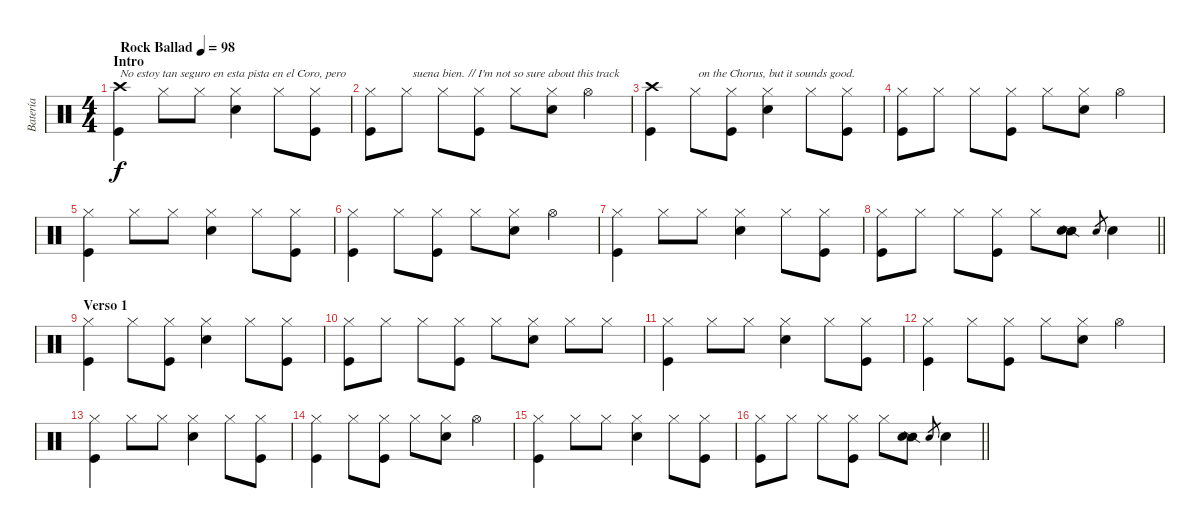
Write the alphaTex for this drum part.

\track ("Batería" "Batería") {instrument percussion}
\staff {score}
\articulation defaults
\ts (4 4)
\section ("" "Intro")
\tempo (98 "Rock Ballad")
\clef neutral
\ks c
("Crash high (hit)" "Kick (hit)").4{txt "No estoy tan seguro en esta pista en el Coro, pero" dy f} "Hi-Hat (closed)".8 "Hi-Hat (closed)".8 ("Hi-Hat (closed)" "Snare (hit) 2").4 "Hi-Hat (closed)".8 ("Hi-Hat (closed)" "Kick (hit)").8 |
("Hi-Hat (closed)" "Kick (hit)").8 "Hi-Hat (closed)".8{txt "  suena bien. // I'm not so sure about this track "} "Hi-Hat (closed)".8 ("Hi-Hat (closed)" "Kick (hit)").8 "Hi-Hat (closed)".8 ("Hi-Hat (closed)" "Snare (hit) 2").8 "Hi-Hat (open)".4 |
("Crash high (hit)" "Kick (hit)").4 "Hi-Hat (closed)".8{txt " on the Chorus, but it sounds good."} ("Hi-Hat (closed)" "Kick (hit)").8 ("Hi-Hat (closed)" "Snare (hit) 2").4 "Hi-Hat (closed)".8 ("Hi-Hat (closed)" "Kick (hit)").8 |
("Hi-Hat (closed)" "Kick (hit)").8 "Hi-Hat (closed)".8 "Hi-Hat (closed)".8 ("Hi-Hat (closed)" "Kick (hit)").8 "Hi-Hat (closed)".8 ("Hi-Hat (closed)" "Snare (hit) 2").8 "Hi-Hat (open)".4 |
("Hi-Hat (closed)" "Kick (hit)").4 "Hi-Hat (closed)".8 "Hi-Hat (closed)".8 ("Hi-Hat (closed)" "Snare (hit) 2").4 "Hi-Hat (closed)".8 ("Hi-Hat (closed)" "Kick (hit)").8 |
("Hi-Hat (closed)" "Kick (hit)").4 "Hi-Hat (closed)".8 ("Hi-Hat (closed)" "Kick (hit)").8 "Hi-Hat (closed)".8 ("Hi-Hat (closed)" "Snare (hit) 2").8 "Hi-Hat (open)".4 |
("Hi-Hat (closed)" "Kick (hit)").4 "Hi-Hat (closed)".8 "Hi-Hat (closed)".8 ("Hi-Hat (closed)" "Snare (hit) 2").4 "Hi-Hat (closed)".8 ("Hi-Hat (closed)" "Kick (hit)").8 |
\barLineRight lightlight
("Hi-Hat (closed)" "Kick (hit)").8 "Hi-Hat (closed)".8 "Hi-Hat (closed)".8 ("Hi-Hat (closed)" "Kick (hit)").8 "Hi-Hat (closed)".8 ("Snare (side stick) 2" "Snare (hit) 2").8 "Snare (hit) 2".8{gr} "Snare (hit) 2".4 |
\section ("" "Verso 1")
("Hi-Hat (closed)" "Kick (hit)").4 "Hi-Hat (closed)".8 ("Hi-Hat (closed)" "Kick (hit)").8 ("Hi-Hat (closed)" "Snare (hit) 2").4 "Hi-Hat (closed)".8 ("Hi-Hat (closed)" "Kick (hit)").8 |
("Hi-Hat (closed)" "Kick (hit)").8 "Hi-Hat (closed)".8 "Hi-Hat (closed)".8 ("Hi-Hat (closed)" "Kick (hit)").8 "Hi-Hat (closed)".8 ("Hi-Hat (closed)" "Snare (hit) 2").8 "Hi-Hat (closed)".8 "Hi-Hat (closed)".8 |
("Hi-Hat (closed)" "Kick (hit)").4 "Hi-Hat (closed)".8 "Hi-Hat (closed)".8 ("Hi-Hat (closed)" "Snare (hit) 2").4 "Hi-Hat (closed)".8 ("Hi-Hat (closed)" "Kick (hit)").8 |
("Hi-Hat (closed)" "Kick (hit)").4 "Hi-Hat (closed)".8 ("Hi-Hat (closed)" "Kick (hit)").8 "Hi-Hat (closed)".8 ("Hi-Hat (closed)" "Snare (hit) 2").8 "Hi-Hat (open)".4 |
("Hi-Hat (closed)" "Kick (hit)").4 "Hi-Hat (closed)".8 "Hi-Hat (closed)".8 ("Hi-Hat (closed)" "Snare (hit) 2").4 "Hi-Hat (closed)".8 ("Hi-Hat (closed)" "Kick (hit)").8 |
("Hi-Hat (closed)" "Kick (hit)").4 "Hi-Hat (closed)".8 ("Hi-Hat (closed)" "Kick (hit)").8 "Hi-Hat (closed)".8 ("Hi-Hat (closed)" "Snare (hit) 2").8 "Hi-Hat (open)".4 |
("Hi-Hat (closed)" "Kick (hit)").4 "Hi-Hat (closed)".8 "Hi-Hat (closed)".8 ("Hi-Hat (closed)" "Snare (hit) 2").4 "Hi-Hat (closed)".8 ("Hi-Hat (closed)" "Kick (hit)").8 |
\barLineRight lightlight
("Hi-Hat (closed)" "Kick (hit)").8 "Hi-Hat (closed)".8 "Hi-Hat (closed)".8 ("Hi-Hat (closed)" "Kick (hit)").8 "Hi-Hat (closed)".8 ("Snare (side stick) 2" "Snare (hit) 2").8 "Snare (hit) 2".8{gr} "Snare (hit) 2".4
